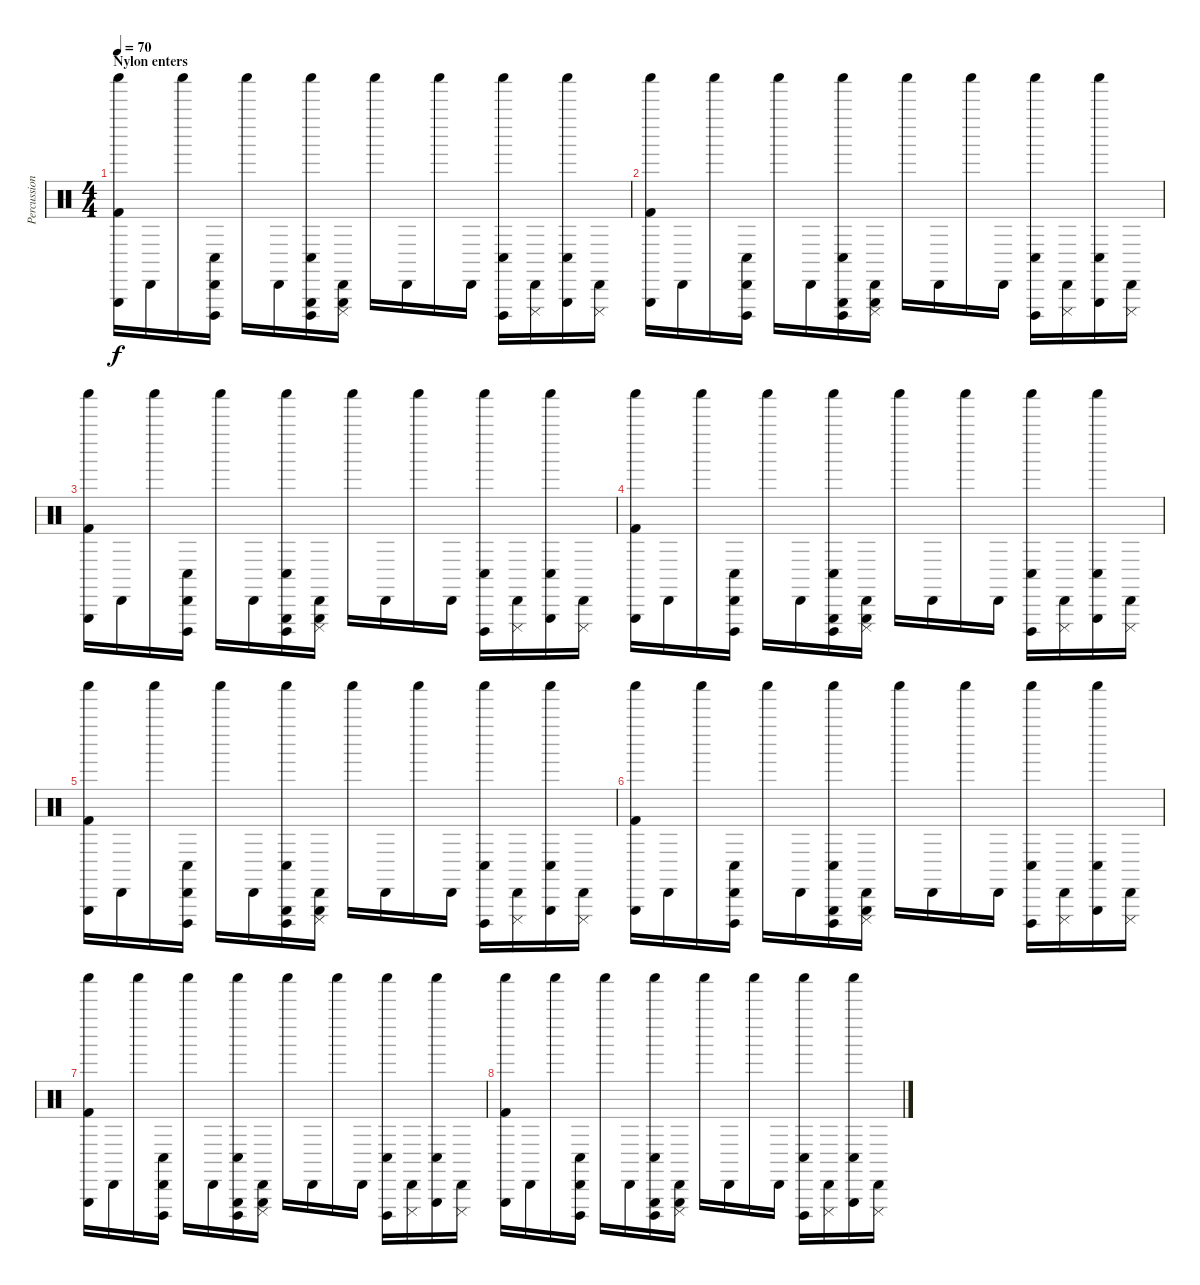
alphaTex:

\track ("Percussion" "Percussion") {instrument percussion}
\staff {score}
\articulation defaults
\ts (4 4)
\section ("" "Nylon enters")
\tempo 70
\clef neutral
\ks c
("Triangle (hit)" "Shaker (hit)" "Kick (hit) 2").16{dy f} "Cabasa (hit)".16 "Shaker (hit)".16 ("Cabasa (hit)" "Cuica (open)" "Conga low (hit)").16 "Shaker (hit)".16 "Cabasa (hit)".16 ("Triangle (hit)" "Shaker (hit)" "Cuica (open)" "Conga low (hit)").16 ("Triangle (hit)" "Cabasa (hit)" "Cuica (mute)").16 "Shaker (hit)".16 "Cabasa (hit)".16 "Shaker (hit)".16 "Cabasa (hit)".16 ("Shaker (hit)" "Cuica (open)" "Conga low (hit)").16 ("Cabasa (hit)" "Cuica (mute)").16 ("Triangle (hit)" "Shaker (hit)" "Conga low (hit)").16 ("Cabasa (hit)" "Cuica (mute)").16 |
("Triangle (hit)" "Shaker (hit)" "Kick (hit) 2").16 "Cabasa (hit)".16 "Shaker (hit)".16 ("Cabasa (hit)" "Cuica (open)" "Conga low (hit)").16 "Shaker (hit)".16 "Cabasa (hit)".16 ("Triangle (hit)" "Shaker (hit)" "Cuica (open)" "Conga low (hit)").16 ("Triangle (hit)" "Cabasa (hit)" "Cuica (mute)").16 "Shaker (hit)".16 "Cabasa (hit)".16 "Shaker (hit)".16 "Cabasa (hit)".16 ("Shaker (hit)" "Cuica (open)" "Conga low (hit)").16 ("Cabasa (hit)" "Cuica (mute)").16 ("Triangle (hit)" "Shaker (hit)" "Conga low (hit)").16 ("Cabasa (hit)" "Cuica (mute)").16 |
("Triangle (hit)" "Shaker (hit)" "Kick (hit) 2").16 "Cabasa (hit)".16 "Shaker (hit)".16 ("Cabasa (hit)" "Cuica (open)" "Conga low (hit)").16 "Shaker (hit)".16 "Cabasa (hit)".16 ("Triangle (hit)" "Shaker (hit)" "Cuica (open)" "Conga low (hit)").16 ("Triangle (hit)" "Cabasa (hit)" "Cuica (mute)").16 "Shaker (hit)".16 "Cabasa (hit)".16 "Shaker (hit)".16 "Cabasa (hit)".16 ("Shaker (hit)" "Cuica (open)" "Conga low (hit)").16 ("Cabasa (hit)" "Cuica (mute)").16 ("Triangle (hit)" "Shaker (hit)" "Conga low (hit)").16 ("Cabasa (hit)" "Cuica (mute)").16 |
("Triangle (hit)" "Shaker (hit)" "Kick (hit) 2").16 "Cabasa (hit)".16 "Shaker (hit)".16 ("Cabasa (hit)" "Cuica (open)" "Conga low (hit)").16 "Shaker (hit)".16 "Cabasa (hit)".16 ("Triangle (hit)" "Shaker (hit)" "Cuica (open)" "Conga low (hit)").16 ("Triangle (hit)" "Cabasa (hit)" "Cuica (mute)").16 "Shaker (hit)".16 "Cabasa (hit)".16 "Shaker (hit)".16 "Cabasa (hit)".16 ("Shaker (hit)" "Cuica (open)" "Conga low (hit)").16 ("Cabasa (hit)" "Cuica (mute)").16 ("Triangle (hit)" "Shaker (hit)" "Conga low (hit)").16 ("Cabasa (hit)" "Cuica (mute)").16 |
("Triangle (hit)" "Shaker (hit)" "Kick (hit) 2").16 "Cabasa (hit)".16 "Shaker (hit)".16 ("Cabasa (hit)" "Cuica (open)" "Conga low (hit)").16 "Shaker (hit)".16 "Cabasa (hit)".16 ("Triangle (hit)" "Shaker (hit)" "Cuica (open)" "Conga low (hit)").16 ("Triangle (hit)" "Cabasa (hit)" "Cuica (mute)").16 "Shaker (hit)".16 "Cabasa (hit)".16 "Shaker (hit)".16 "Cabasa (hit)".16 ("Shaker (hit)" "Cuica (open)" "Conga low (hit)").16 ("Cabasa (hit)" "Cuica (mute)").16 ("Triangle (hit)" "Shaker (hit)" "Conga low (hit)").16 ("Cabasa (hit)" "Cuica (mute)").16 |
("Triangle (hit)" "Shaker (hit)" "Kick (hit) 2").16 "Cabasa (hit)".16 "Shaker (hit)".16 ("Cabasa (hit)" "Cuica (open)" "Conga low (hit)").16 "Shaker (hit)".16 "Cabasa (hit)".16 ("Triangle (hit)" "Shaker (hit)" "Cuica (open)" "Conga low (hit)").16 ("Triangle (hit)" "Cabasa (hit)" "Cuica (mute)").16 "Shaker (hit)".16 "Cabasa (hit)".16 "Shaker (hit)".16 "Cabasa (hit)".16 ("Shaker (hit)" "Cuica (open)" "Conga low (hit)").16 ("Cabasa (hit)" "Cuica (mute)").16 ("Triangle (hit)" "Shaker (hit)" "Conga low (hit)").16 ("Cabasa (hit)" "Cuica (mute)").16 |
("Triangle (hit)" "Shaker (hit)" "Kick (hit) 2").16 "Cabasa (hit)".16 "Shaker (hit)".16 ("Cabasa (hit)" "Cuica (open)" "Conga low (hit)").16 "Shaker (hit)".16 "Cabasa (hit)".16 ("Triangle (hit)" "Shaker (hit)" "Cuica (open)" "Conga low (hit)").16 ("Triangle (hit)" "Cabasa (hit)" "Cuica (mute)").16 "Shaker (hit)".16 "Cabasa (hit)".16 "Shaker (hit)".16 "Cabasa (hit)".16 ("Shaker (hit)" "Cuica (open)" "Conga low (hit)").16 ("Cabasa (hit)" "Cuica (mute)").16 ("Triangle (hit)" "Shaker (hit)" "Conga low (hit)").16 ("Cabasa (hit)" "Cuica (mute)").16 |
("Triangle (hit)" "Shaker (hit)" "Kick (hit) 2").16 "Cabasa (hit)".16 "Shaker (hit)".16 ("Cabasa (hit)" "Cuica (open)" "Conga low (hit)").16 "Shaker (hit)".16 "Cabasa (hit)".16 ("Triangle (hit)" "Shaker (hit)" "Cuica (open)" "Conga low (hit)").16 ("Triangle (hit)" "Cabasa (hit)" "Cuica (mute)").16 "Shaker (hit)".16 "Cabasa (hit)".16 "Shaker (hit)".16 "Cabasa (hit)".16 ("Shaker (hit)" "Cuica (open)" "Conga low (hit)").16 ("Cabasa (hit)" "Cuica (mute)").16 ("Triangle (hit)" "Shaker (hit)" "Conga low (hit)").16 ("Cabasa (hit)" "Cuica (mute)").16
